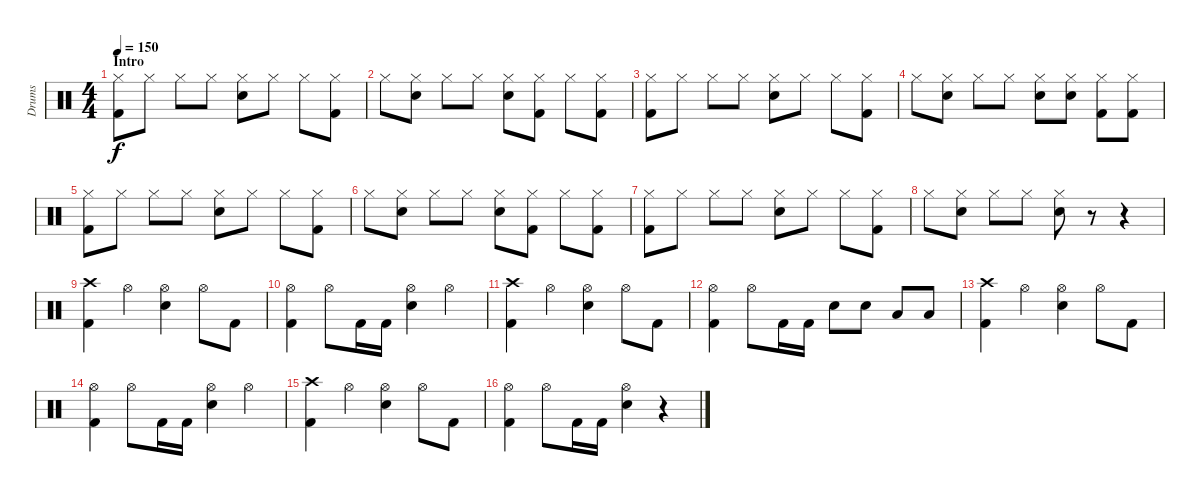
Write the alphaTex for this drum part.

\track ("Drums" "Drums") {instrument percussion}
\staff {score}
\articulation defaults
\ts (4 4)
\section ("" "Intro")
\tempo 150
\clef neutral
\ks c
("Hi-Hat (closed)" "Kick (hit) 2").8{dy f} "Hi-Hat (closed)".8 "Hi-Hat (closed)".8 "Hi-Hat (closed)".8 ("Hi-Hat (closed)" "Electric Snare (hit)").8 "Hi-Hat (closed)".8 "Hi-Hat (closed)".8 ("Hi-Hat (closed)" "Kick (hit) 2").8 |
"Hi-Hat (closed)".8 ("Hi-Hat (closed)" "Electric Snare (hit)").8 "Hi-Hat (closed)".8 "Hi-Hat (closed)".8 ("Hi-Hat (closed)" "Electric Snare (hit)").8 ("Hi-Hat (closed)" "Kick (hit) 2").8 "Hi-Hat (closed)".8 ("Hi-Hat (closed)" "Kick (hit) 2").8 |
("Hi-Hat (closed)" "Kick (hit) 2").8 "Hi-Hat (closed)".8 "Hi-Hat (closed)".8 "Hi-Hat (closed)".8 ("Hi-Hat (closed)" "Electric Snare (hit)").8 "Hi-Hat (closed)".8 "Hi-Hat (closed)".8 ("Hi-Hat (closed)" "Kick (hit) 2").8 |
"Hi-Hat (closed)".8 ("Hi-Hat (closed)" "Electric Snare (hit)").8 "Hi-Hat (closed)".8 "Hi-Hat (closed)".8 ("Hi-Hat (closed)" "Electric Snare (hit)").8 ("Hi-Hat (closed)" "Electric Snare (hit)").8 ("Hi-Hat (closed)" "Kick (hit) 2").8 ("Hi-Hat (closed)" "Kick (hit) 2").8 |
("Hi-Hat (closed)" "Kick (hit) 2").8 "Hi-Hat (closed)".8 "Hi-Hat (closed)".8 "Hi-Hat (closed)".8 ("Hi-Hat (closed)" "Electric Snare (hit)").8 "Hi-Hat (closed)".8 "Hi-Hat (closed)".8 ("Hi-Hat (closed)" "Kick (hit) 2").8 |
"Hi-Hat (closed)".8 ("Hi-Hat (closed)" "Electric Snare (hit)").8 "Hi-Hat (closed)".8 "Hi-Hat (closed)".8 ("Hi-Hat (closed)" "Electric Snare (hit)").8 ("Hi-Hat (closed)" "Kick (hit) 2").8 "Hi-Hat (closed)".8 ("Hi-Hat (closed)" "Kick (hit) 2").8 |
("Hi-Hat (closed)" "Kick (hit) 2").8 "Hi-Hat (closed)".8 "Hi-Hat (closed)".8 "Hi-Hat (closed)".8 ("Hi-Hat (closed)" "Electric Snare (hit)").8 "Hi-Hat (closed)".8 "Hi-Hat (closed)".8 ("Hi-Hat (closed)" "Kick (hit) 2").8 |
"Hi-Hat (closed)".8 ("Hi-Hat (closed)" "Electric Snare (hit)").8 "Hi-Hat (closed)".8 "Hi-Hat (closed)".8 ("Hi-Hat (closed)" "Electric Snare (hit)").8 r.8 r.4 |
("Crash high (hit)" "Kick (hit) 2").4 "Hi-Hat (open)".4 ("Hi-Hat (open)" "Electric Snare (hit)").4 "Hi-Hat (open)".8 "Kick (hit) 2".8 |
("Hi-Hat (open)" "Kick (hit) 2").4 "Hi-Hat (open)".8 "Kick (hit) 2".16 "Kick (hit) 2".16 ("Hi-Hat (open)" "Electric Snare (hit)").4 "Hi-Hat (open)".4 |
("Crash high (hit)" "Kick (hit) 2").4 "Hi-Hat (open)".4 ("Hi-Hat (open)" "Electric Snare (hit)").4 "Hi-Hat (open)".8 "Kick (hit) 2".8 |
("Hi-Hat (open)" "Kick (hit) 2").4 "Hi-Hat (open)".8 "Kick (hit) 2".16 "Kick (hit) 2".16 "Electric Snare (hit)".8 "Electric Snare (hit)".8 "Low Tom (hit)".8 "Low Tom (hit)".8 |
("Crash high (hit)" "Kick (hit) 2").4 "Hi-Hat (open)".4 ("Hi-Hat (open)" "Electric Snare (hit)").4 "Hi-Hat (open)".8 "Kick (hit) 2".8 |
("Hi-Hat (open)" "Kick (hit) 2").4 "Hi-Hat (open)".8 "Kick (hit) 2".16 "Kick (hit) 2".16 ("Hi-Hat (open)" "Electric Snare (hit)").4 "Hi-Hat (open)".4 |
("Crash high (hit)" "Kick (hit) 2").4 "Hi-Hat (open)".4 ("Hi-Hat (open)" "Electric Snare (hit)").4 "Hi-Hat (open)".8 "Kick (hit) 2".8 |
("Hi-Hat (open)" "Kick (hit) 2").4 "Hi-Hat (open)".8 "Kick (hit) 2".16 "Kick (hit) 2".16 ("Hi-Hat (open)" "Electric Snare (hit)").4 r.4
